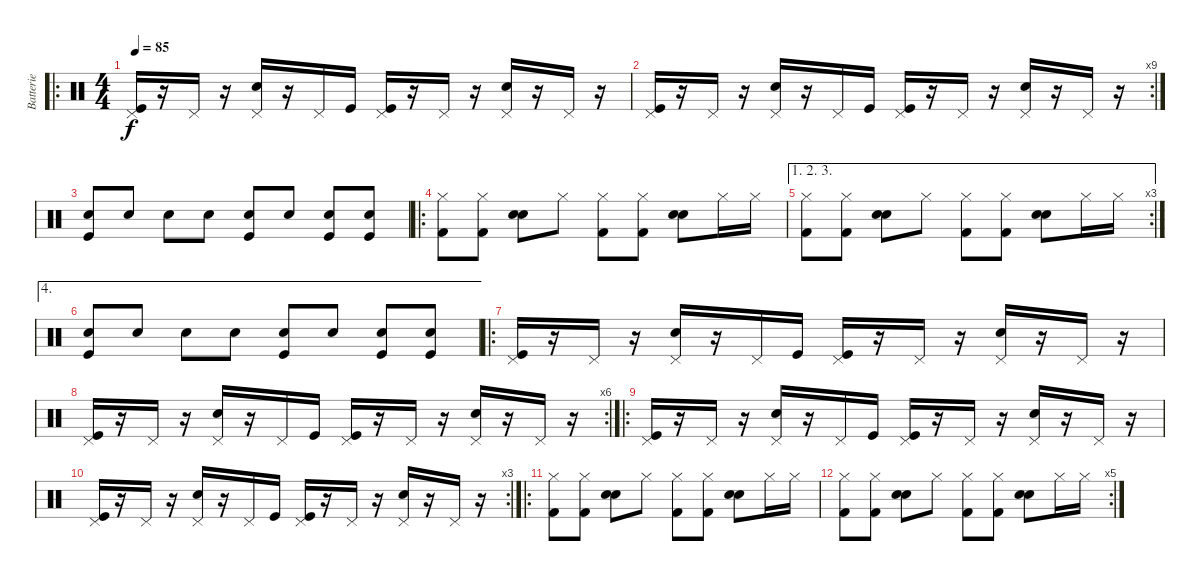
\track ("Batterie" "Batterie") {instrument percussion}
\staff {score}
\articulation defaults
\ro
\ts (4 4)
\tempo 85
\clef neutral
\ks c
("Pedal Hi-Hat (hit)" "Kick (hit)").16{dy f} r.16 "Pedal Hi-Hat (hit)".16 r.16 ("Pedal Hi-Hat (hit)" "Snare (hit) 2").16 r.16 "Pedal Hi-Hat (hit)".16 "Kick (hit)".16 ("Pedal Hi-Hat (hit)" "Kick (hit)").16 r.16 "Pedal Hi-Hat (hit)".16 r.16 ("Pedal Hi-Hat (hit)" "Snare (hit) 2").16 r.16 "Pedal Hi-Hat (hit)".16 r.16 |
\rc 9
("Pedal Hi-Hat (hit)" "Kick (hit)").16 r.16 "Pedal Hi-Hat (hit)".16 r.16 ("Pedal Hi-Hat (hit)" "Snare (hit) 2").16 r.16 "Pedal Hi-Hat (hit)".16 "Kick (hit)".16 ("Pedal Hi-Hat (hit)" "Kick (hit)").16 r.16 "Pedal Hi-Hat (hit)".16 r.16 ("Pedal Hi-Hat (hit)" "Snare (hit) 2").16 r.16 "Pedal Hi-Hat (hit)".16 r.16 |
("Snare (hit) 2" "Kick (hit)").8 "Snare (hit) 2".8 "Snare (hit) 2".8 "Snare (hit) 2".8 ("Snare (hit) 2" "Kick (hit)").8 "Snare (hit) 2".8 ("Snare (hit) 2" "Kick (hit)").8 ("Snare (hit) 2" "Kick (hit)").8 |
\ro
("Kick (hit) 2" "Hi-Hat (closed)").8 ("Kick (hit) 2" "Hi-Hat (closed)").8 ("Hand Clap (hit)" "Electric Snare (hit)").8 "Hi-Hat (closed)".8 ("Kick (hit) 2" "Hi-Hat (closed)").8 ("Kick (hit) 2" "Hi-Hat (closed)").8 ("Hand Clap (hit)" "Electric Snare (hit)").8 "Hi-Hat (closed)".16 "Hi-Hat (closed)".16 |
\ae (1 2 3)
\rc 3
("Kick (hit) 2" "Hi-Hat (closed)").8 ("Kick (hit) 2" "Hi-Hat (closed)").8 ("Hand Clap (hit)" "Electric Snare (hit)").8 "Hi-Hat (closed)".8 ("Kick (hit) 2" "Hi-Hat (closed)").8 ("Kick (hit) 2" "Hi-Hat (closed)").8 ("Hand Clap (hit)" "Electric Snare (hit)").8 "Hi-Hat (closed)".16 "Hi-Hat (closed)".16 |
\ae 4
("Snare (hit) 2" "Kick (hit)").8 "Snare (hit) 2".8 "Snare (hit) 2".8 "Snare (hit) 2".8 ("Snare (hit) 2" "Kick (hit)").8 "Snare (hit) 2".8 ("Snare (hit) 2" "Kick (hit)").8 ("Snare (hit) 2" "Kick (hit)").8 |
\ro
("Pedal Hi-Hat (hit)" "Kick (hit)").16 r.16 "Pedal Hi-Hat (hit)".16 r.16 ("Pedal Hi-Hat (hit)" "Snare (hit) 2").16 r.16 "Pedal Hi-Hat (hit)".16 "Kick (hit)".16 ("Pedal Hi-Hat (hit)" "Kick (hit)").16 r.16 "Pedal Hi-Hat (hit)".16 r.16 ("Pedal Hi-Hat (hit)" "Snare (hit) 2").16 r.16 "Pedal Hi-Hat (hit)".16 r.16 |
\rc 6
("Pedal Hi-Hat (hit)" "Kick (hit)").16 r.16 "Pedal Hi-Hat (hit)".16 r.16 ("Pedal Hi-Hat (hit)" "Snare (hit) 2").16 r.16 "Pedal Hi-Hat (hit)".16 "Kick (hit)".16 ("Pedal Hi-Hat (hit)" "Kick (hit)").16 r.16 "Pedal Hi-Hat (hit)".16 r.16 ("Pedal Hi-Hat (hit)" "Snare (hit) 2").16 r.16 "Pedal Hi-Hat (hit)".16 r.16 |
\ro
("Pedal Hi-Hat (hit)" "Kick (hit)").16 r.16 "Pedal Hi-Hat (hit)".16 r.16 ("Pedal Hi-Hat (hit)" "Snare (hit) 2").16 r.16 "Pedal Hi-Hat (hit)".16 "Kick (hit)".16 ("Pedal Hi-Hat (hit)" "Kick (hit)").16 r.16 "Pedal Hi-Hat (hit)".16 r.16 ("Pedal Hi-Hat (hit)" "Snare (hit) 2").16 r.16 "Pedal Hi-Hat (hit)".16 r.16 |
\rc 3
("Pedal Hi-Hat (hit)" "Kick (hit)").16 r.16 "Pedal Hi-Hat (hit)".16 r.16 ("Pedal Hi-Hat (hit)" "Snare (hit) 2").16 r.16 "Pedal Hi-Hat (hit)".16 "Kick (hit)".16 ("Pedal Hi-Hat (hit)" "Kick (hit)").16 r.16 "Pedal Hi-Hat (hit)".16 r.16 ("Pedal Hi-Hat (hit)" "Snare (hit) 2").16 r.16 "Pedal Hi-Hat (hit)".16 r.16 |
\ro
("Kick (hit) 2" "Hi-Hat (closed)").8 ("Kick (hit) 2" "Hi-Hat (closed)").8 ("Hand Clap (hit)" "Electric Snare (hit)").8 "Hi-Hat (closed)".8 ("Kick (hit) 2" "Hi-Hat (closed)").8 ("Kick (hit) 2" "Hi-Hat (closed)").8 ("Hand Clap (hit)" "Electric Snare (hit)").8 "Hi-Hat (closed)".16 "Hi-Hat (closed)".16 |
\rc 5
("Kick (hit) 2" "Hi-Hat (closed)").8 ("Kick (hit) 2" "Hi-Hat (closed)").8 ("Hand Clap (hit)" "Electric Snare (hit)").8 "Hi-Hat (closed)".8 ("Kick (hit) 2" "Hi-Hat (closed)").8 ("Kick (hit) 2" "Hi-Hat (closed)").8 ("Hand Clap (hit)" "Electric Snare (hit)").8 "Hi-Hat (closed)".16 "Hi-Hat (closed)".16
